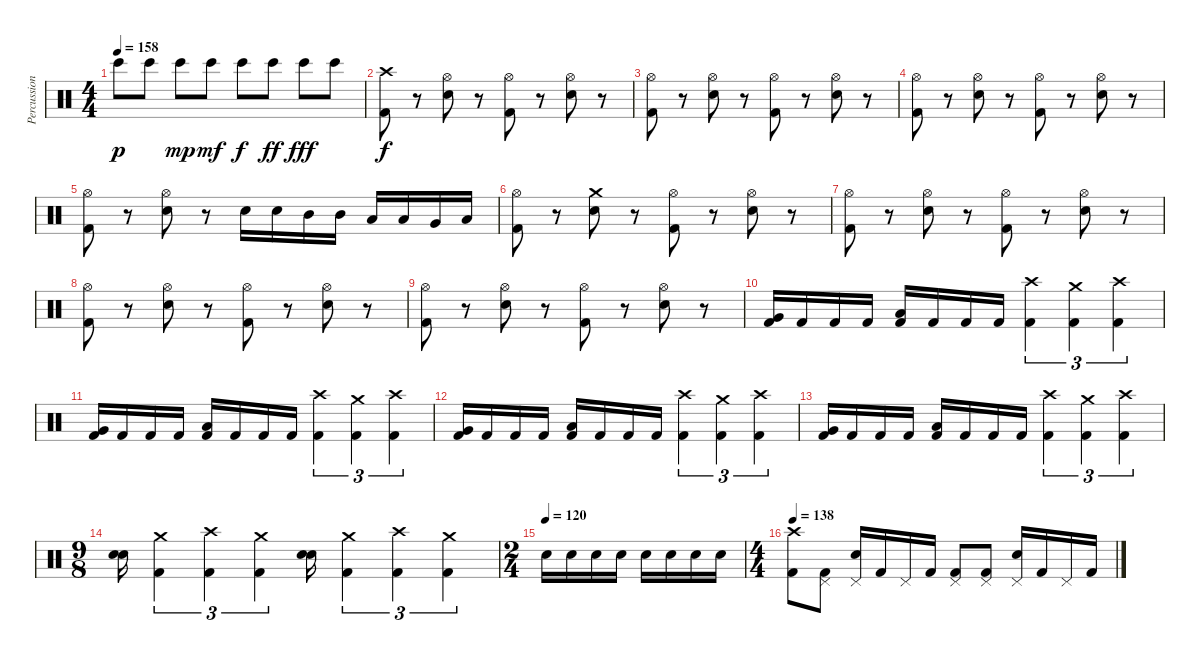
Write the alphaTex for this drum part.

\track ("Percussion" "Percussion") {instrument percussion}
\staff {score}
\articulation defaults
\ts (4 4)
\tempo 158
\clef neutral
\ks c "Bongo High (hit)".8{dy p} "Bongo High (hit)".8 "Bongo High (hit)".8{dy mp} "Bongo High (hit)".8{dy mf} "Bongo High (hit)".8{dy f} "Bongo High (hit)".8{dy ff} "Bongo High (hit)".8{dy fff} "Bongo High (hit)".8
|
("Crash high (hit)" "Kick (hit) 2").8{dy f} r.8 ("Hi-Hat (open)" "Snare (hit) 2").8 r.8 ("Hi-Hat (open)" "Kick (hit) 2").8 r.8 ("Hi-Hat (open)" "Snare (hit) 2").8 r.8 |
("Hi-Hat (open)" "Kick (hit) 2").8 r.8 ("Hi-Hat (open)" "Snare (hit) 2").8 r.8 ("Hi-Hat (open)" "Kick (hit) 2").8 r.8 ("Hi-Hat (open)" "Snare (hit) 2").8 r.8 |
("Hi-Hat (open)" "Kick (hit) 2").8 r.8 ("Hi-Hat (open)" "Snare (hit) 2").8 r.8 ("Hi-Hat (open)" "Kick (hit) 2").8 r.8 ("Hi-Hat (open)" "Snare (hit) 2").8 r.8 |
("Hi-Hat (open)" "Kick (hit) 2").8 r.8 ("Hi-Hat (open)" "Snare (hit) 2").8 r.8 "Snare (hit) 2".16 "Snare (hit) 2".16 "Mid Tom (hit)".16 "Mid Tom (hit)".16 "Low Tom (hit)".16 "Low Tom (hit)".16 "Very Low Tom (hit)".16 "Low Floor Tom (hit)".16 |
("Hi-Hat (open)" "Kick (hit) 2").8 r.8 ("Crash medium (hit)" "Snare (hit) 2").8 r.8 ("Hi-Hat (open)" "Kick (hit) 2").8 r.8 ("Hi-Hat (open)" "Snare (hit) 2").8 r.8 |
("Hi-Hat (open)" "Kick (hit) 2").8 r.8 ("Hi-Hat (open)" "Snare (hit) 2").8 r.8 ("Hi-Hat (open)" "Kick (hit) 2").8 r.8 ("Hi-Hat (open)" "Snare (hit) 2").8 r.8 |
("Hi-Hat (open)" "Kick (hit) 2").8 r.8 ("Hi-Hat (open)" "Snare (hit) 2").8 r.8 ("Hi-Hat (open)" "Kick (hit) 2").8 r.8 ("Hi-Hat (open)" "Snare (hit) 2").8 r.8 |
("Hi-Hat (open)" "Kick (hit) 2").8 r.8 ("Hi-Hat (open)" "Snare (hit) 2").8 r.8 ("Hi-Hat (open)" "Kick (hit) 2").8 r.8 ("Hi-Hat (open)" "Snare (hit) 2").8 r.8 |
("Very Low Tom (hit)" "Kick (hit) 2").16 "Kick (hit) 2".16 "Kick (hit) 2".16 "Kick (hit) 2".16 ("Low Floor Tom (hit)" "Kick (hit) 2").16 "Kick (hit) 2".16 "Kick (hit) 2".16 "Kick (hit) 2".16 ("Crash high (hit)" "Kick (hit) 2").4{tu (3 2)} ("Crash medium (hit)" "Kick (hit) 2").4{tu (3 2)} ("Crash high (hit)" "Kick (hit) 2").4{tu (3 2)} |
("Very Low Tom (hit)" "Kick (hit) 2").16 "Kick (hit) 2".16 "Kick (hit) 2".16 "Kick (hit) 2".16 ("Low Floor Tom (hit)" "Kick (hit) 2").16 "Kick (hit) 2".16 "Kick (hit) 2".16 "Kick (hit) 2".16 ("Crash high (hit)" "Kick (hit) 2").4{tu (3 2)} ("Crash medium (hit)" "Kick (hit) 2").4{tu (3 2)} ("Crash high (hit)" "Kick (hit) 2").4{tu (3 2)} |
("Very Low Tom (hit)" "Kick (hit) 2").16 "Kick (hit) 2".16 "Kick (hit) 2".16 "Kick (hit) 2".16 ("Low Floor Tom (hit)" "Kick (hit) 2").16 "Kick (hit) 2".16 "Kick (hit) 2".16 "Kick (hit) 2".16 ("Crash high (hit)" "Kick (hit) 2").4{tu (3 2)} ("Crash medium (hit)" "Kick (hit) 2").4{tu (3 2)} ("Crash high (hit)" "Kick (hit) 2").4{tu (3 2)} |
("Very Low Tom (hit)" "Kick (hit) 2").16 "Kick (hit) 2".16 "Kick (hit) 2".16 "Kick (hit) 2".16 ("Low Floor Tom (hit)" "Kick (hit) 2").16 "Kick (hit) 2".16 "Kick (hit) 2".16 "Kick (hit) 2".16 ("Crash high (hit)" "Kick (hit) 2").4{tu (3 2)} ("Crash medium (hit)" "Kick (hit) 2").4{tu (3 2)} ("Crash high (hit)" "Kick (hit) 2").4{tu (3 2)} |
\ts (9 8)
("Snare (hit) 2" "Snare (hit) 2").16 ("Crash medium (hit)" "Kick (hit) 2").4{tu (3 2)} ("Crash high (hit)" "Kick (hit) 2").4{tu (3 2)} ("Crash medium (hit)" "Kick (hit) 2").4{tu (3 2)} ("Snare (hit) 2" "Snare (hit) 2").16 ("Crash medium (hit)" "Kick (hit) 2").4{tu (3 2)} ("Crash high (hit)" "Kick (hit) 2").4{tu (3 2)} ("Crash medium (hit)" "Kick (hit) 2").4{tu (3 2)} |
\ts (2 4)
\tempo (120)
"Snare (hit) 2".16 "Snare (hit) 2".16 "Snare (hit) 2".16 "Snare (hit) 2".16 "Snare (hit) 2".16 "Snare (hit) 2".16 "Snare (hit) 2".16 "Snare (hit) 2".16 |
\ts (4 4)
\tempo 138
("Crash high (hit)" "Kick (hit) 2").8 ("Pedal Hi-Hat (hit)" "Kick (hit) 2").8 ("Pedal Hi-Hat (hit)" "Snare (hit) 2").16 "Kick (hit) 2".16 "Pedal Hi-Hat (hit)".16 "Kick (hit) 2".16 ("Pedal Hi-Hat (hit)" "Kick (hit) 2").8 ("Pedal Hi-Hat (hit)" "Kick (hit) 2").8 ("Pedal Hi-Hat (hit)" "Snare (hit) 2").16 "Kick (hit) 2".16 "Pedal Hi-Hat (hit)".16 "Kick (hit) 2".16
